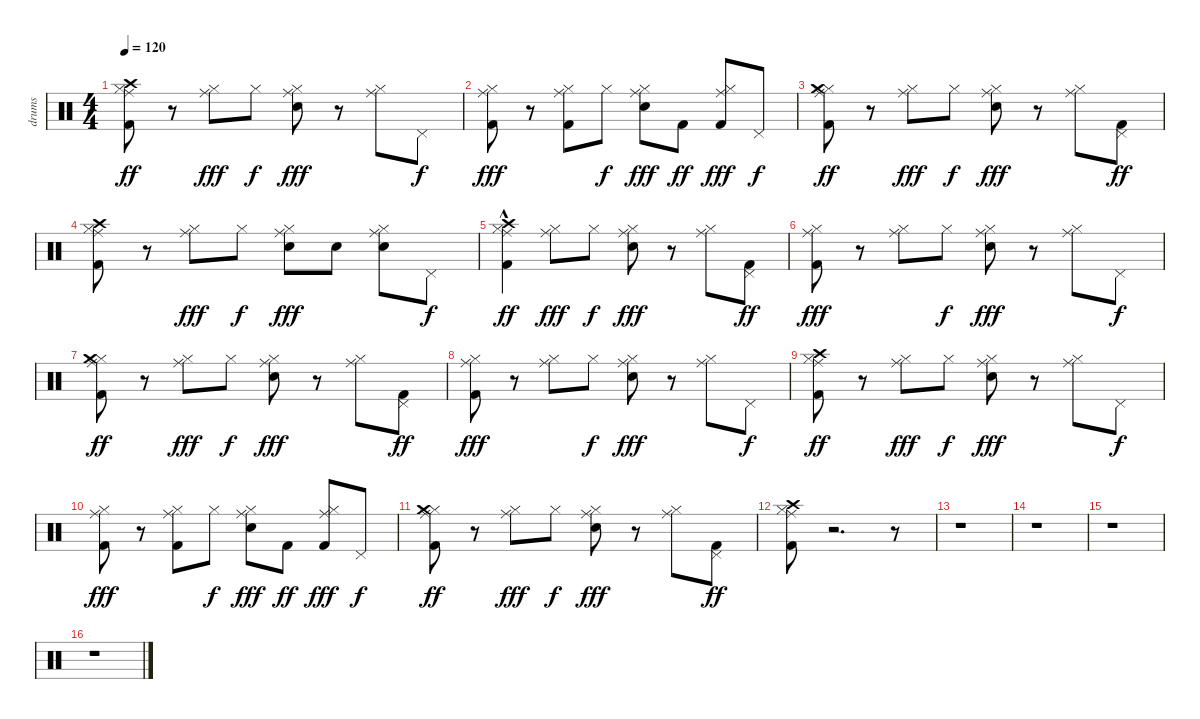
\track ("drums" "drums") {instrument percussion}
\staff {score}
\articulation defaults
\ts (4 4)
\tempo 120
\clef neutral
\ks c
("Kick (hit) 2" "Hi-Hat (closed)" "Ride (middle)" "Crash high (hit)").8{dy ff} r.8 ("Hi-Hat (closed)" "Ride (middle)").8{dy fff} "Hi-Hat (closed)".8{dy f} ("Snare (hit) 2" "Hi-Hat (closed)" "Ride (middle)").8{dy fff} r.8 ("Hi-Hat (closed)" "Ride (middle)").8 "Pedal Hi-Hat (hit)".8{dy f} |
("Kick (hit) 2" "Hi-Hat (closed)" "Ride (middle)").8{dy fff} r.8 ("Kick (hit) 2" "Hi-Hat (closed)" "Ride (middle)").8 "Hi-Hat (closed)".8{dy f} ("Snare (hit) 2" "Hi-Hat (closed)" "Ride (middle)").8{dy fff} "Kick (hit) 2".8{dy ff} ("Kick (hit) 2" "Hi-Hat (closed)" "Ride (middle)").8{dy fff} "Pedal Hi-Hat (hit)".8{dy f} |
("Kick (hit) 2" "Hi-Hat (closed)" "Ride (middle)" "Crash medium (hit)").8{dy ff} r.8 ("Hi-Hat (closed)" "Ride (middle)").8{dy fff} "Hi-Hat (closed)".8{dy f} ("Snare (hit) 2" "Hi-Hat (closed)" "Ride (middle)").8{dy fff} r.8 ("Hi-Hat (closed)" "Ride (middle)").8 ("Kick (hit) 2" "Pedal Hi-Hat (hit)").8{dy ff} |
("Kick (hit) 2" "Hi-Hat (closed)" "Ride (middle)" "Crash high (hit)").8 r.8 ("Hi-Hat (closed)" "Ride (middle)").8{dy fff} "Hi-Hat (closed)".8{dy f} ("Snare (hit) 2" "Hi-Hat (closed)" "Ride (middle)").8{dy fff} "Snare (hit) 2".8 ("Snare (hit) 2" "Hi-Hat (closed)" "Ride (middle)").8 "Pedal Hi-Hat (hit)".8{dy f} |
("Kick (hit) 2" "Hi-Hat (closed)" "Ride (middle)" "Crash high (hit)"{hac}).4{dy ff} ("Hi-Hat (closed)" "Ride (middle)").8{dy fff} "Hi-Hat (closed)".8{dy f} ("Snare (hit) 2" "Hi-Hat (closed)" "Ride (middle)").8{dy fff} r.8 ("Hi-Hat (closed)" "Ride (middle)").8 ("Kick (hit) 2" "Pedal Hi-Hat (hit)").8{dy ff} |
("Kick (hit) 2" "Hi-Hat (closed)" "Ride (middle)").8{dy fff} r.8 ("Hi-Hat (closed)" "Ride (middle)").8 "Hi-Hat (closed)".8{dy f} ("Snare (hit) 2" "Hi-Hat (closed)" "Ride (middle)").8{dy fff} r.8 ("Hi-Hat (closed)" "Ride (middle)").8 "Pedal Hi-Hat (hit)".8{dy f} |
("Kick (hit) 2" "Hi-Hat (closed)" "Ride (middle)" "Crash medium (hit)").8{dy ff} r.8 ("Hi-Hat (closed)" "Ride (middle)").8{dy fff} "Hi-Hat (closed)".8{dy f} ("Snare (hit) 2" "Hi-Hat (closed)" "Ride (middle)").8{dy fff} r.8 ("Hi-Hat (closed)" "Ride (middle)").8 ("Kick (hit) 2" "Pedal Hi-Hat (hit)").8{dy ff} |
("Kick (hit) 2" "Hi-Hat (closed)" "Ride (middle)").8{dy fff} r.8 ("Hi-Hat (closed)" "Ride (middle)").8 "Hi-Hat (closed)".8{dy f} ("Snare (hit) 2" "Hi-Hat (closed)" "Ride (middle)").8{dy fff} r.8 ("Hi-Hat (closed)" "Ride (middle)").8 "Pedal Hi-Hat (hit)".8{dy f} |
("Kick (hit) 2" "Hi-Hat (closed)" "Ride (middle)" "Crash high (hit)").8{dy ff} r.8 ("Hi-Hat (closed)" "Ride (middle)").8{dy fff} "Hi-Hat (closed)".8{dy f} ("Snare (hit) 2" "Hi-Hat (closed)" "Ride (middle)").8{dy fff} r.8 ("Hi-Hat (closed)" "Ride (middle)").8 "Pedal Hi-Hat (hit)".8{dy f} |
("Kick (hit) 2" "Hi-Hat (closed)" "Ride (middle)").8{dy fff} r.8 ("Kick (hit) 2" "Hi-Hat (closed)" "Ride (middle)").8 "Hi-Hat (closed)".8{dy f} ("Snare (hit) 2" "Hi-Hat (closed)" "Ride (middle)").8{dy fff} "Kick (hit) 2".8{dy ff} ("Kick (hit) 2" "Hi-Hat (closed)" "Ride (middle)").8{dy fff} "Pedal Hi-Hat (hit)".8{dy f} |
("Kick (hit) 2" "Hi-Hat (closed)" "Ride (middle)" "Crash medium (hit)").8{dy ff} r.8 ("Hi-Hat (closed)" "Ride (middle)").8{dy fff} "Hi-Hat (closed)".8{dy f} ("Snare (hit) 2" "Hi-Hat (closed)" "Ride (middle)").8{dy fff} r.8 ("Hi-Hat (closed)" "Ride (middle)").8 ("Kick (hit) 2" "Pedal Hi-Hat (hit)").8{dy ff} |
("Kick (hit) 2" "Hi-Hat (closed)" "Ride (middle)" "Crash high (hit)").8 r.2{d} r.8 |
r.1 |
r.1 |
r.1 |
r.1
